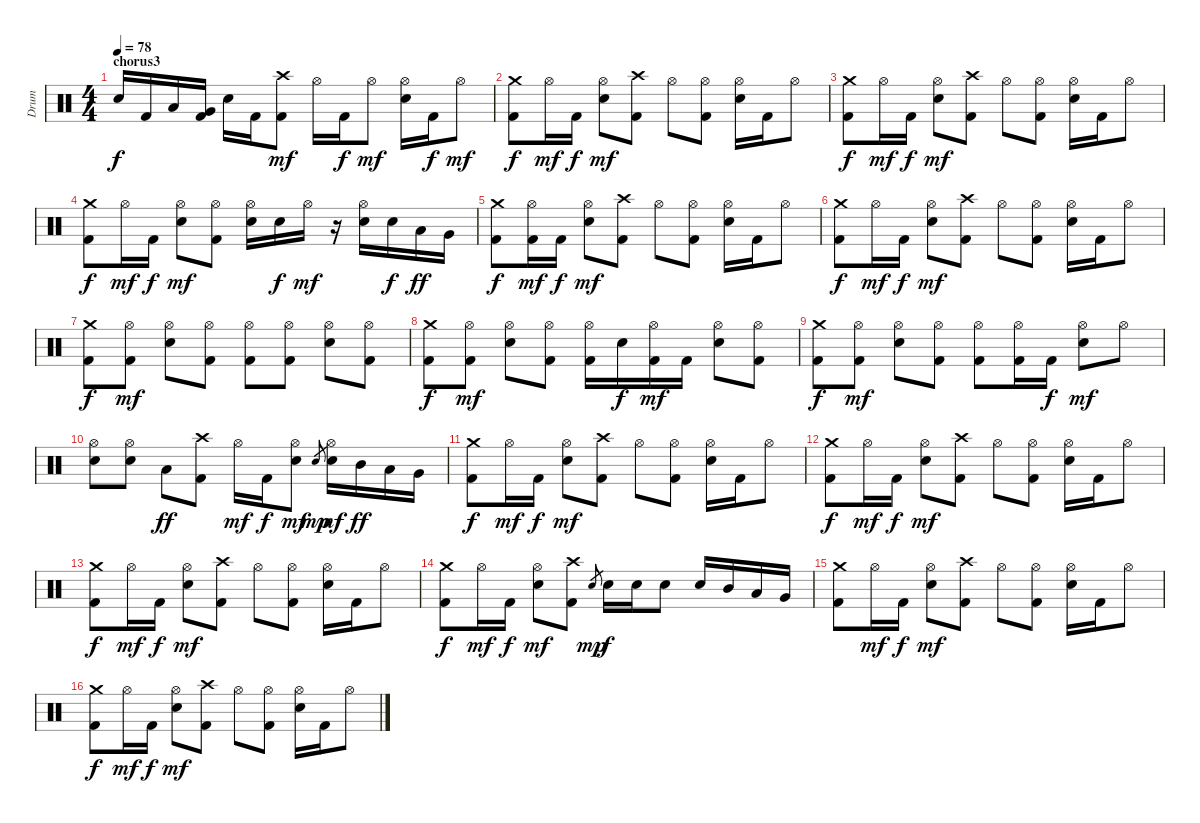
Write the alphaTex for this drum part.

\track ("Drum" "Drum") {instrument percussion}
\staff {score}
\articulation defaults
\ts (4 4)
\section ("" "chorus3")
\tempo 78
\clef neutral
\ks c "Snare (hit) 2".16{dy f} "Kick (hit) 2".16 "Low Tom (hit)".16
("Very Low Tom (hit)" "Kick (hit) 2").16 "Snare (hit) 2".16 "Kick (hit) 2".16 ("Crash high (hit)" "Kick (hit) 2").8{dy mf} "Hi-Hat (open)".16 "Kick (hit) 2".16{dy f} "Hi-Hat (open)".8{dy mf} ("Hi-Hat (open)" "Snare (hit) 2").16 "Kick (hit) 2".16{dy f} "Hi-Hat (open)".8{dy mf} |
("Crash medium (hit)" "Kick (hit) 2").8{dy f} "Hi-Hat (open)".16{dy mf} "Kick (hit) 2".16{dy f} ("Hi-Hat (open)" "Snare (hit) 2").8{dy mf} ("Crash high (hit)" "Kick (hit) 2").8 "Hi-Hat (open)".8 ("Hi-Hat (open)" "Kick (hit) 2").8 ("Hi-Hat (open)" "Snare (hit) 2").16 "Kick (hit) 2".16 "Hi-Hat (open)".8 |
("Crash medium (hit)" "Kick (hit) 2").8{dy f} "Hi-Hat (open)".16{dy mf} "Kick (hit) 2".16{dy f} ("Hi-Hat (open)" "Snare (hit) 2").8{dy mf} ("Crash high (hit)" "Kick (hit) 2").8 "Hi-Hat (open)".8 ("Hi-Hat (open)" "Kick (hit) 2").8 ("Hi-Hat (open)" "Snare (hit) 2").16 "Kick (hit) 2".16 "Hi-Hat (open)".8 |
("Crash medium (hit)" "Kick (hit) 2").8{dy f} "Hi-Hat (open)".16{dy mf} "Kick (hit) 2".16{dy f} ("Hi-Hat (open)" "Snare (hit) 2").8{dy mf} ("Hi-Hat (open)" "Kick (hit) 2").8 ("Hi-Hat (open)" "Snare (hit) 2").16 "Snare (hit) 2".16{dy f} "Hi-Hat (open)".16{dy mf} r.16 ("Hi-Hat (open)" "Snare (hit) 2").16 "Snare (hit) 2".16{dy f} "Low Tom (hit)".16{dy ff} "Very Low Tom (hit)".16 |
("Crash medium (hit)" "Kick (hit) 2").8{dy f} ("Hi-Hat (open)" "Kick (hit) 2").16{dy mf} "Kick (hit) 2".16{dy f} ("Hi-Hat (open)" "Snare (hit) 2").8{dy mf} ("Crash high (hit)" "Kick (hit) 2").8 "Hi-Hat (open)".8 ("Hi-Hat (open)" "Kick (hit) 2").8 ("Hi-Hat (open)" "Snare (hit) 2").16 "Kick (hit) 2".16 "Hi-Hat (open)".8 |
("Crash medium (hit)" "Kick (hit) 2").8{dy f} "Hi-Hat (open)".16{dy mf} "Kick (hit) 2".16{dy f} ("Hi-Hat (open)" "Snare (hit) 2").8{dy mf} ("Crash high (hit)" "Kick (hit) 2").8 "Hi-Hat (open)".8 ("Hi-Hat (open)" "Kick (hit) 2").8 ("Hi-Hat (open)" "Snare (hit) 2").16 "Kick (hit) 2".16 "Hi-Hat (open)".8 |
("Crash medium (hit)" "Kick (hit) 2").8{dy f} ("Hi-Hat (open)" "Kick (hit) 2").8{dy mf} ("Hi-Hat (open)" "Snare (hit) 2").8 ("Hi-Hat (open)" "Kick (hit) 2").8 ("Hi-Hat (open)" "Kick (hit) 2").8 ("Hi-Hat (open)" "Kick (hit) 2").8 ("Hi-Hat (open)" "Snare (hit) 2").8 ("Hi-Hat (open)" "Kick (hit) 2").8 |
("Crash medium (hit)" "Kick (hit) 2").8{dy f} ("Hi-Hat (open)" "Kick (hit) 2").8{dy mf} ("Hi-Hat (open)" "Snare (hit) 2").8 ("Hi-Hat (open)" "Kick (hit) 2").8 ("Hi-Hat (open)" "Kick (hit) 2").16 "Snare (hit) 2".16{dy f} ("Hi-Hat (open)" "Kick (hit) 2").16{dy mf} "Kick (hit) 2".16 ("Hi-Hat (open)" "Snare (hit) 2").8 ("Hi-Hat (open)" "Kick (hit) 2").8 |
("Crash medium (hit)" "Kick (hit) 2").8{dy f} ("Hi-Hat (open)" "Kick (hit) 2").8{dy mf} ("Hi-Hat (open)" "Snare (hit) 2").8 ("Hi-Hat (open)" "Kick (hit) 2").8 ("Hi-Hat (open)" "Kick (hit) 2").8 ("Hi-Hat (open)" "Kick (hit) 2").16 "Kick (hit) 2".16{dy f} ("Hi-Hat (open)" "Snare (hit) 2").8{dy mf} "Hi-Hat (open)".8 |
("Hi-Hat (open)" "Snare (hit) 2").8 ("Hi-Hat (open)" "Snare (hit) 2").8 "Low Tom (hit)".8{dy ff} ("Crash high (hit)" "Kick (hit) 2").8 "Hi-Hat (open)".16{dy mf} "Kick (hit) 2".16{dy f} ("Hi-Hat (open)" "Snare (hit) 2").8{dy mf} "Snare (hit) 2".8{gr dy mp} ("Hi-Hat (open)" "Snare (hit) 2").16{dy mf} "Mid Tom (hit)".16{dy ff} "Low Tom (hit)".16 "Very Low Tom (hit)".16 |
("Crash medium (hit)" "Kick (hit) 2").8{dy f} "Hi-Hat (open)".16{dy mf} "Kick (hit) 2".16{dy f} ("Hi-Hat (open)" "Snare (hit) 2").8{dy mf} ("Crash high (hit)" "Kick (hit) 2").8 "Hi-Hat (open)".8 ("Hi-Hat (open)" "Kick (hit) 2").8 ("Hi-Hat (open)" "Snare (hit) 2").16 "Kick (hit) 2".16 "Hi-Hat (open)".8 |
("Crash medium (hit)" "Kick (hit) 2").8{dy f} "Hi-Hat (open)".16{dy mf} "Kick (hit) 2".16{dy f} ("Hi-Hat (open)" "Snare (hit) 2").8{dy mf} ("Crash high (hit)" "Kick (hit) 2").8 "Hi-Hat (open)".8 ("Hi-Hat (open)" "Kick (hit) 2").8 ("Hi-Hat (open)" "Snare (hit) 2").16 "Kick (hit) 2".16 "Hi-Hat (open)".8 |
("Crash medium (hit)" "Kick (hit) 2").8{dy f} "Hi-Hat (open)".16{dy mf} "Kick (hit) 2".16{dy f} ("Hi-Hat (open)" "Snare (hit) 2").8{dy mf} ("Crash high (hit)" "Kick (hit) 2").8 "Hi-Hat (open)".8 ("Hi-Hat (open)" "Kick (hit) 2").8 ("Hi-Hat (open)" "Snare (hit) 2").16 "Kick (hit) 2".16 "Hi-Hat (open)".8 |
("Crash medium (hit)" "Kick (hit) 2").8{dy f} "Hi-Hat (open)".16{dy mf} "Kick (hit) 2".16{dy f} ("Hi-Hat (open)" "Snare (hit) 2").8{dy mf} ("Crash high (hit)" "Kick (hit) 2").8 "Snare (hit) 2".8{gr dy mp} "Snare (hit) 2".16{dy f} "Snare (hit) 2".16 "Snare (hit) 2".8 "Snare (hit) 2".16 "Mid Tom (hit)".16 "Low Tom (hit)".16 "Very Low Tom (hit)".16 |
("Crash medium (hit)" "Kick (hit) 2").8 "Hi-Hat (open)".16{dy mf} "Kick (hit) 2".16{dy f} ("Hi-Hat (open)" "Snare (hit) 2").8{dy mf} ("Crash high (hit)" "Kick (hit) 2").8 "Hi-Hat (open)".8 ("Hi-Hat (open)" "Kick (hit) 2").8 ("Hi-Hat (open)" "Snare (hit) 2").16 "Kick (hit) 2".16 "Hi-Hat (open)".8 |
("Crash medium (hit)" "Kick (hit) 2").8{dy f} "Hi-Hat (open)".16{dy mf} "Kick (hit) 2".16{dy f} ("Hi-Hat (open)" "Snare (hit) 2").8{dy mf} ("Crash high (hit)" "Kick (hit) 2").8 "Hi-Hat (open)".8 ("Hi-Hat (open)" "Kick (hit) 2").8 ("Hi-Hat (open)" "Snare (hit) 2").16 "Kick (hit) 2".16 "Hi-Hat (open)".8
